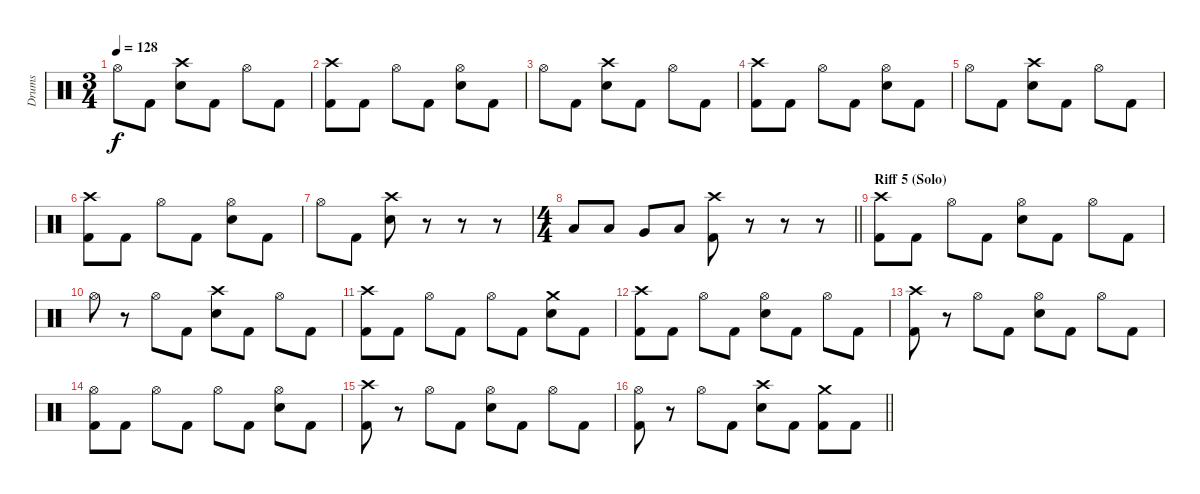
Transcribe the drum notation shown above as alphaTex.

\track ("Drums" "Drums") {instrument percussion}
\staff {score}
\articulation defaults
\ts (3 4)
\tempo 128
\clef neutral
\ks c "Hi-Hat (open)".8{dy f} "Kick (hit) 2".8
("Crash high (hit)" "Electric Snare (hit)").8 "Kick (hit) 2".8 "Hi-Hat (open)".8 "Kick (hit) 2".8 |
("Crash high (hit)" "Kick (hit) 2").8 "Kick (hit) 2".8 "Hi-Hat (open)".8 "Kick (hit) 2".8 ("Hi-Hat (open)" "Electric Snare (hit)").8 "Kick (hit) 2".8 |
"Hi-Hat (open)".8 "Kick (hit) 2".8 ("Crash high (hit)" "Electric Snare (hit)").8 "Kick (hit) 2".8 "Hi-Hat (open)".8 "Kick (hit) 2".8 |
("Crash high (hit)" "Kick (hit) 2").8 "Kick (hit) 2".8 "Hi-Hat (open)".8 "Kick (hit) 2".8 ("Hi-Hat (open)" "Electric Snare (hit)").8 "Kick (hit) 2".8 |
"Hi-Hat (open)".8 "Kick (hit) 2".8 ("Crash high (hit)" "Electric Snare (hit)").8 "Kick (hit) 2".8 "Hi-Hat (open)".8 "Kick (hit) 2".8 |
("Crash high (hit)" "Kick (hit) 2").8 "Kick (hit) 2".8 "Hi-Hat (open)".8 "Kick (hit) 2".8 ("Hi-Hat (open)" "Electric Snare (hit)").8 "Kick (hit) 2".8 |
"Hi-Hat (open)".8 "Kick (hit) 2".8 ("Crash high (hit)" "Electric Snare (hit)").8 r.8 r.8 r.8 |
\ts (4 4)
\barLineRight lightlight "Low Tom (hit)".8 "Low Floor Tom (hit)".8 "Very Low Tom (hit)".8 "Low Floor Tom (hit)".8
("Crash high (hit)" "Kick (hit) 2").8 r.8 r.8 r.8 |
\section ("" "Riff 5 (Solo)")
("Crash high (hit)" "Kick (hit) 2").8 "Kick (hit) 2".8 "Hi-Hat (open)".8 "Kick (hit) 2".8 ("Hi-Hat (open)" "Electric Snare (hit)").8 "Kick (hit) 2".8 "Hi-Hat (open)".8 "Kick (hit) 2".8 |
"Hi-Hat (open)".8 r.8 "Hi-Hat (open)".8 "Kick (hit) 2".8 ("Crash high (hit)" "Electric Snare (hit)").8 "Kick (hit) 2".8 "Hi-Hat (open)".8 "Kick (hit) 2".8 |
("Crash high (hit)" "Kick (hit) 2").8 "Kick (hit) 2".8 "Hi-Hat (open)".8 "Kick (hit) 2".8 "Hi-Hat (open)".8 "Kick (hit) 2".8 ("Crash medium (hit)" "Electric Snare (hit)").8 "Kick (hit) 2".8 |
("Crash high (hit)" "Kick (hit) 2").8 "Kick (hit) 2".8 "Hi-Hat (open)".8 "Kick (hit) 2".8 ("Hi-Hat (open)" "Electric Snare (hit)").8 "Kick (hit) 2".8 "Hi-Hat (open)".8 "Kick (hit) 2".8 |
("Crash high (hit)" "Kick (hit) 2").8 r.8 "Hi-Hat (open)".8 "Kick (hit) 2".8 ("Hi-Hat (open)" "Electric Snare (hit)").8 "Kick (hit) 2".8 "Hi-Hat (open)".8 "Kick (hit) 2".8 |
("Hi-Hat (open)" "Kick (hit) 2").8 "Kick (hit) 2".8 "Hi-Hat (open)".8 "Kick (hit) 2".8 "Hi-Hat (open)".8 "Kick (hit) 2".8 ("Hi-Hat (open)" "Electric Snare (hit)").8 "Kick (hit) 2".8 |
("Crash high (hit)" "Kick (hit) 2").8 r.8 "Hi-Hat (open)".8 "Kick (hit) 2".8 ("Hi-Hat (open)" "Electric Snare (hit)").8 "Kick (hit) 2".8 "Hi-Hat (open)".8 "Kick (hit) 2".8 |
\barLineRight lightlight
("Hi-Hat (open)" "Kick (hit) 2").8 r.8 "Hi-Hat (open)".8 "Kick (hit) 2".8 ("Crash high (hit)" "Electric Snare (hit)").8 "Kick (hit) 2".8 ("Crash medium (hit)" "Kick (hit) 2").8 "Kick (hit) 2".8
